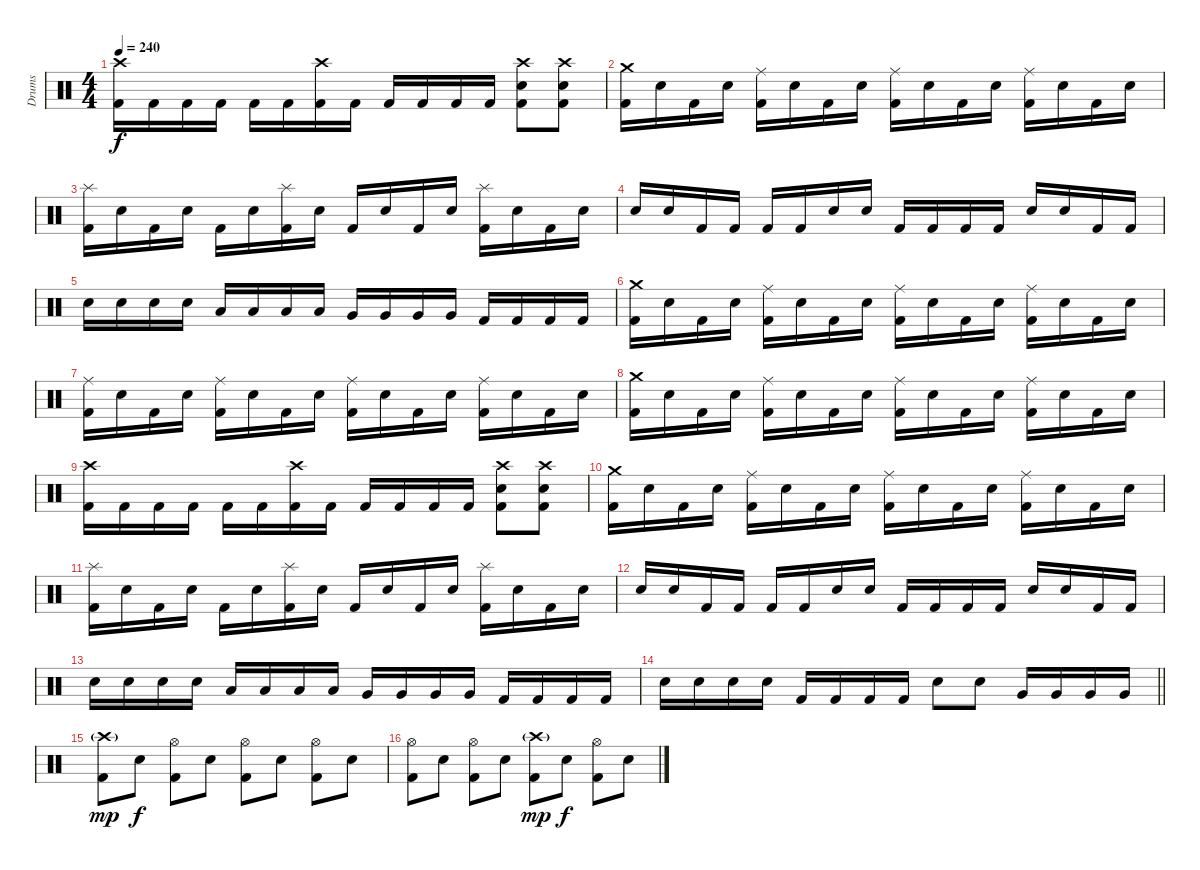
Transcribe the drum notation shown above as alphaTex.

\track ("Drums" "Drums") {instrument percussion}
\staff {score}
\articulation defaults
\ts (4 4)
\tempo 240
\clef neutral
\ks c
("Crash high (hit)" "Kick (hit) 2").16{dy f} "Kick (hit) 2".16 "Kick (hit) 2".16 "Kick (hit) 2".16 "Kick (hit) 2".16 "Kick (hit) 2".16 ("Crash high (hit)" "Kick (hit) 2").16 "Kick (hit) 2".16 "Kick (hit) 2".16 "Kick (hit) 2".16 "Kick (hit) 2".16 "Kick (hit) 2".16 ("Crash high (hit)" "Snare (hit) 2" "Kick (hit) 2").8 ("Crash high (hit)" "Snare (hit) 2" "Kick (hit) 2").8 |
("Crash medium (hit)" "Kick (hit) 2").16 "Snare (hit) 2".16 "Kick (hit) 2".16 "Snare (hit) 2".16 ("Ride (middle)" "Kick (hit) 2").16 "Snare (hit) 2".16 "Kick (hit) 2".16 "Snare (hit) 2".16 ("Ride (middle)" "Kick (hit) 2").16 "Snare (hit) 2".16 "Kick (hit) 2".16 "Snare (hit) 2".16 ("Ride (middle)" "Kick (hit) 2").16 "Snare (hit) 2".16 "Kick (hit) 2".16 "Snare (hit) 2".16 |
("Splash (hit)" "Kick (hit) 2").16 "Snare (hit) 2".16 "Kick (hit) 2".16 "Snare (hit) 2".16 "Kick (hit) 2".16 "Snare (hit) 2".16 ("Splash (hit)" "Kick (hit) 2").16 "Snare (hit) 2".16 "Kick (hit) 2".16 "Snare (hit) 2".16 "Kick (hit) 2".16 "Snare (hit) 2".16 ("Splash (hit)" "Kick (hit) 2").16 "Snare (hit) 2".16 "Kick (hit) 2".16 "Snare (hit) 2".16 |
"Snare (hit) 2".16 "Snare (hit) 2".16 "Kick (hit) 2".16 "Kick (hit) 2".16 "Kick (hit) 2".16 "Kick (hit) 2".16 "Snare (hit) 2".16 "Snare (hit) 2".16 "Kick (hit) 2".16 "Kick (hit) 2".16 "Kick (hit) 2".16 "Kick (hit) 2".16 "Snare (hit) 2".16 "Snare (hit) 2".16 "Kick (hit) 2".16 "Kick (hit) 2".16 |
"Snare (hit) 2".16 "Snare (hit) 2".16 "Snare (hit) 2".16 "Snare (hit) 2".16 "Low Tom (hit)".16 "Low Tom (hit)".16 "Low Tom (hit)".16 "Low Tom (hit)".16 "Very Low Tom (hit)".16 "Very Low Tom (hit)".16 "Very Low Tom (hit)".16 "Very Low Tom (hit)".16 "Kick (hit) 2".16 "Kick (hit) 2".16 "Kick (hit) 2".16 "Kick (hit) 2".16 |
("Crash medium (hit)" "Kick (hit) 2").16 "Snare (hit) 2".16 "Kick (hit) 2".16 "Snare (hit) 2".16 ("Ride (middle)" "Kick (hit) 2").16 "Snare (hit) 2".16 "Kick (hit) 2".16 "Snare (hit) 2".16 ("Ride (middle)" "Kick (hit) 2").16 "Snare (hit) 2".16 "Kick (hit) 2".16 "Snare (hit) 2".16 ("Ride (middle)" "Kick (hit) 2").16 "Snare (hit) 2".16 "Kick (hit) 2".16 "Snare (hit) 2".16 |
("Ride (middle)" "Kick (hit) 2").16 "Snare (hit) 2".16 "Kick (hit) 2".16 "Snare (hit) 2".16 ("Ride (middle)" "Kick (hit) 2").16 "Snare (hit) 2".16 "Kick (hit) 2".16 "Snare (hit) 2".16 ("Ride (middle)" "Kick (hit) 2").16 "Snare (hit) 2".16 "Kick (hit) 2".16 "Snare (hit) 2".16 ("Ride (middle)" "Kick (hit) 2").16 "Snare (hit) 2".16 "Kick (hit) 2".16 "Snare (hit) 2".16 |
("Crash medium (hit)" "Kick (hit) 2").16 "Snare (hit) 2".16 "Kick (hit) 2".16 "Snare (hit) 2".16 ("Ride (middle)" "Kick (hit) 2").16 "Snare (hit) 2".16 "Kick (hit) 2".16 "Snare (hit) 2".16 ("Ride (middle)" "Kick (hit) 2").16 "Snare (hit) 2".16 "Kick (hit) 2".16 "Snare (hit) 2".16 ("Ride (middle)" "Kick (hit) 2").16 "Snare (hit) 2".16 "Kick (hit) 2".16 "Snare (hit) 2".16 |
("Crash high (hit)" "Kick (hit) 2").16 "Kick (hit) 2".16 "Kick (hit) 2".16 "Kick (hit) 2".16 "Kick (hit) 2".16 "Kick (hit) 2".16 ("Crash high (hit)" "Kick (hit) 2").16 "Kick (hit) 2".16 "Kick (hit) 2".16 "Kick (hit) 2".16 "Kick (hit) 2".16 "Kick (hit) 2".16 ("Crash high (hit)" "Snare (hit) 2" "Kick (hit) 2").8 ("Crash high (hit)" "Snare (hit) 2" "Kick (hit) 2").8 |
("Crash medium (hit)" "Kick (hit) 2").16 "Snare (hit) 2".16 "Kick (hit) 2".16 "Snare (hit) 2".16 ("Ride (middle)" "Kick (hit) 2").16 "Snare (hit) 2".16 "Kick (hit) 2".16 "Snare (hit) 2".16 ("Ride (middle)" "Kick (hit) 2").16 "Snare (hit) 2".16 "Kick (hit) 2".16 "Snare (hit) 2".16 ("Ride (middle)" "Kick (hit) 2").16 "Snare (hit) 2".16 "Kick (hit) 2".16 "Snare (hit) 2".16 |
("Splash (hit)" "Kick (hit) 2").16 "Snare (hit) 2".16 "Kick (hit) 2".16 "Snare (hit) 2".16 "Kick (hit) 2".16 "Snare (hit) 2".16 ("Splash (hit)" "Kick (hit) 2").16 "Snare (hit) 2".16 "Kick (hit) 2".16 "Snare (hit) 2".16 "Kick (hit) 2".16 "Snare (hit) 2".16 ("Splash (hit)" "Kick (hit) 2").16 "Snare (hit) 2".16 "Kick (hit) 2".16 "Snare (hit) 2".16 |
"Snare (hit) 2".16 "Snare (hit) 2".16 "Kick (hit) 2".16 "Kick (hit) 2".16 "Kick (hit) 2".16 "Kick (hit) 2".16 "Snare (hit) 2".16 "Snare (hit) 2".16 "Kick (hit) 2".16 "Kick (hit) 2".16 "Kick (hit) 2".16 "Kick (hit) 2".16 "Snare (hit) 2".16 "Snare (hit) 2".16 "Kick (hit) 2".16 "Kick (hit) 2".16 |
"Snare (hit) 2".16 "Snare (hit) 2".16 "Snare (hit) 2".16 "Snare (hit) 2".16 "Low Tom (hit)".16 "Low Tom (hit)".16 "Low Tom (hit)".16 "Low Tom (hit)".16 "Very Low Tom (hit)".16 "Very Low Tom (hit)".16 "Very Low Tom (hit)".16 "Very Low Tom (hit)".16 "Kick (hit) 2".16 "Kick (hit) 2".16 "Kick (hit) 2".16 "Kick (hit) 2".16 |
\barLineRight lightlight "Snare (hit) 2".16 "Snare (hit) 2".16 "Snare (hit) 2".16 "Snare (hit) 2".16 "Kick (hit) 2".16 "Kick (hit) 2".16 "Kick (hit) 2".16 "Kick (hit) 2".16 "Snare (hit) 2".8 "Snare (hit) 2".8 "Very Low Tom (hit)".16 "Very Low Tom (hit)".16 "Very Low Tom (hit)".16 "Very Low Tom (hit)".16
|
\section ("" "")
("Crash high (hit)"{g} "Kick (hit) 2").8{dy mp} "Snare (hit) 2".8{dy f} ("Hi-Hat (open)" "Kick (hit) 2").8 "Snare (hit) 2".8 ("Hi-Hat (open)" "Kick (hit) 2").8 "Snare (hit) 2".8 ("Hi-Hat (open)" "Kick (hit) 2").8 "Snare (hit) 2".8 |
("Hi-Hat (open)" "Kick (hit) 2").8 "Snare (hit) 2".8 ("Hi-Hat (open)" "Kick (hit) 2").8 "Snare (hit) 2".8 ("Crash high (hit)"{g} "Kick (hit) 2").8{dy mp} "Snare (hit) 2".8{dy f} ("Hi-Hat (open)" "Kick (hit) 2").8 "Snare (hit) 2".8
